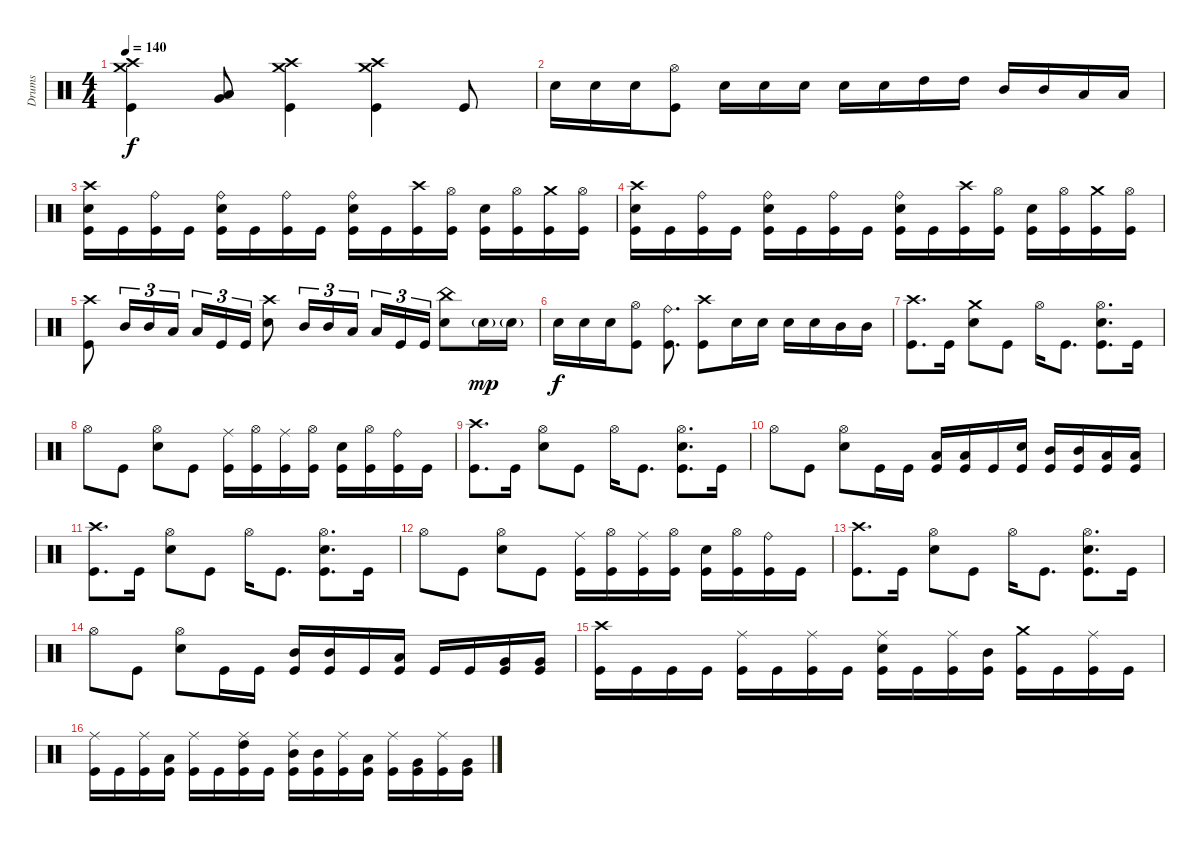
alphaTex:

\track ("Drums" "Drums") {instrument percussion}
\staff {score}
\articulation defaults
\ts (4 4)
\tempo 140
\clef neutral
\ks c
("Crash high (hit)" "Crash medium (hit)" "Kick (hit)").4{dy f} ("Very Low Tom (hit)" "Low Tom (hit)").8 ("Crash high (hit)" "Crash medium (hit)" "Kick (hit)").4 ("Crash high (hit)" "Crash medium (hit)" "Kick (hit)").4 "Kick (hit)".8 |
"Snare (hit) 2".16 "Snare (hit) 2".16 "Snare (hit) 2".16 ("Hi-Hat (open)" "Kick (hit)").8 "Snare (hit) 2".16 "Snare (hit) 2".16 "Snare (hit) 2".16 "Snare (hit) 2".16 "Snare (hit) 2".16 "High Tom (hit)".16 "High Tom (hit)".16 "Mid Tom (hit)".16 "Mid Tom (hit)".16 "Low Tom (hit)".16 "Low Tom (hit)".16 |
("Crash high (hit)" "Snare (hit) 2" "Kick (hit)").16 "Kick (hit)".16 ("Ride (bell)" "Kick (hit)").16 "Kick (hit)".16 ("Ride (bell)" "Snare (hit) 2" "Kick (hit)").16 "Kick (hit)".16 ("Ride (bell)" "Kick (hit)").16 "Kick (hit)".16 ("Ride (bell)" "Snare (hit) 2" "Kick (hit)").16 "Kick (hit)".16 ("Crash high (hit)" "Kick (hit)").16 ("Hi-Hat (open)" "Kick (hit)").16 ("Snare (hit) 2" "Kick (hit)").16 ("Hi-Hat (open)" "Kick (hit)").16 ("Crash medium (hit)" "Kick (hit)").16 ("Hi-Hat (open)" "Kick (hit)").16 |
("Crash high (hit)" "Snare (hit) 2" "Kick (hit)").16 "Kick (hit)".16 ("Ride (bell)" "Kick (hit)").16 "Kick (hit)".16 ("Ride (bell)" "Snare (hit) 2" "Kick (hit)").16 "Kick (hit)".16 ("Ride (bell)" "Kick (hit)").16 "Kick (hit)".16 ("Ride (bell)" "Snare (hit) 2" "Kick (hit)").16 "Kick (hit)".16 ("Crash high (hit)" "Kick (hit)").16 ("Hi-Hat (open)" "Kick (hit)").16 ("Snare (hit) 2" "Kick (hit)").16 ("Hi-Hat (open)" "Kick (hit)").16 ("Crash medium (hit)" "Kick (hit)").16 ("Hi-Hat (open)" "Kick (hit)").16 |
("Crash high (hit)" "Kick (hit)").8 "Mid Tom (hit)".16{tu (3 2)} "Mid Tom (hit)".16{tu (3 2)} "Low Tom (hit)".16{tu (3 2)} "Low Tom (hit)".16{tu (3 2)} "Kick (hit)".16{tu (3 2)} "Kick (hit)".16{tu (3 2)} ("Crash high (hit)" "Snare (hit) 2").8 "Mid Tom (hit)".16{tu (3 2)} "Mid Tom (hit)".16{tu (3 2)} "Low Tom (hit)".16{tu (3 2) beam splitsecondary} "Low Tom (hit)".16{tu (3 2)} "Kick (hit)".16{tu (3 2)} "Kick (hit)".16{tu (3 2)} ("China (hit)" "Snare (hit) 2").8 "Snare (hit) 2"{g}.16{dy mp} "Snare (hit) 2"{g}.16 |
"Snare (hit) 2".16{dy f} "Snare (hit) 2".16 "Snare (hit) 2".16 ("Hi-Hat (open)" "Kick (hit)").8 ("Ride (bell)" "Kick (hit)").8{d} ("Crash high (hit)" "Kick (hit)").8 "Snare (hit) 2".16 "Snare (hit) 2".16 "Snare (hit) 2".16 "Snare (hit) 2".16 "Mid Tom (hit)".16 "Mid Tom (hit)".16 |
("Crash high (hit)" "Kick (hit)").8{d} "Kick (hit)".16 ("Crash medium (hit)" "Snare (hit) 2").8 "Kick (hit)".8 "Hi-Hat (open)".16 "Kick (hit)".8{d} ("Hi-Hat (open)" "Snare (hit) 2" "Kick (hit)").8{d} "Kick (hit)".16 |
"Hi-Hat (open)".8 "Kick (hit)".8 ("Hi-Hat (open)" "Snare (hit) 2").8 "Kick (hit)".8 ("Ride (middle)" "Kick (hit)").16 ("Hi-Hat (open)" "Kick (hit)").16 ("Ride (middle)" "Kick (hit)").16 ("Hi-Hat (open)" "Kick (hit)").16 ("Snare (hit) 2" "Kick (hit)").16 ("Hi-Hat (open)" "Kick (hit)").16 ("Ride (bell)" "Kick (hit)").16 "Kick (hit)".16 |
("Crash high (hit)" "Kick (hit)").8{d} "Kick (hit)".16 ("Hi-Hat (open)" "Snare (hit) 2").8 "Kick (hit)".8 "Hi-Hat (open)".16 "Kick (hit)".8{d} ("Hi-Hat (open)" "Snare (hit) 2" "Kick (hit)").8{d} "Kick (hit)".16 |
"Hi-Hat (open)".8 "Kick (hit)".8 ("Hi-Hat (open)" "Snare (hit) 2").8 "Kick (hit)".16 "Kick (hit)".16 ("Low Tom (hit)" "Kick (hit)").16 ("Low Tom (hit)" "Kick (hit)").16 "Kick (hit)".16 ("Snare (hit) 2" "Kick (hit)").16 ("Mid Tom (hit)" "Kick (hit)").16 ("Mid Tom (hit)" "Kick (hit)").16 ("Low Tom (hit)" "Kick (hit)").16 ("Low Tom (hit)" "Kick (hit)").16 |
("Crash high (hit)" "Kick (hit)").8{d} "Kick (hit)".16 ("Hi-Hat (open)" "Snare (hit) 2").8 "Kick (hit)".8 "Hi-Hat (open)".16 "Kick (hit)".8{d} ("Hi-Hat (open)" "Snare (hit) 2" "Kick (hit)").8{d} "Kick (hit)".16 |
"Hi-Hat (open)".8 "Kick (hit)".8 ("Hi-Hat (open)" "Snare (hit) 2").8 "Kick (hit)".8 ("Ride (middle)" "Kick (hit)").16 ("Hi-Hat (open)" "Kick (hit)").16 ("Ride (middle)" "Kick (hit)").16 ("Hi-Hat (open)" "Kick (hit)").16 ("Snare (hit) 2" "Kick (hit)").16 ("Hi-Hat (open)" "Kick (hit)").16 ("Ride (bell)" "Kick (hit)").16 "Kick (hit)".16 |
("Crash high (hit)" "Kick (hit)").8{d} "Kick (hit)".16 ("Hi-Hat (open)" "Snare (hit) 2").8 "Kick (hit)".8 "Hi-Hat (open)".16 "Kick (hit)".8{d} ("Hi-Hat (open)" "Snare (hit) 2" "Kick (hit)").8{d} "Kick (hit)".16 |
"Hi-Hat (open)".8 "Kick (hit)".8 ("Hi-Hat (open)" "Snare (hit) 2").8 "Kick (hit)".16 "Kick (hit)".16 ("Mid Tom (hit)" "Kick (hit)").16 ("Mid Tom (hit)" "Kick (hit)").16 "Kick (hit)".16 ("Low Tom (hit)" "Kick (hit)").16 "Kick (hit)".16 "Kick (hit)".16 ("Very Low Tom (hit)" "Kick (hit)").16 ("Very Low Tom (hit)" "Kick (hit)").16 |
("Crash high (hit)" "Kick (hit)").16 "Kick (hit)".16 "Kick (hit)".16 "Kick (hit)".16 ("Ride (middle)" "Kick (hit)").16 "Kick (hit)".16 ("Ride (middle)" "Kick (hit)").16 "Kick (hit)".16 ("Ride (middle)" "Snare (hit) 2" "Kick (hit)").16 "Kick (hit)".16 ("Ride (middle)" "Kick (hit)").16 ("Mid Tom (hit)" "Kick (hit)").16 ("Crash medium (hit)" "Kick (hit)").16 "Kick (hit)".16 ("Ride (middle)" "Kick (hit)").16 "Kick (hit)".16 |
("Ride (middle)" "Kick (hit)").16 "Kick (hit)".16 ("Ride (middle)" "Kick (hit)").16 ("Low Tom (hit)" "Kick (hit)").16 ("Ride (middle)" "Kick (hit)").16 "Kick (hit)".16 ("Ride (middle)" "High Tom (hit)" "Kick (hit)").16 "Kick (hit)".16 ("Ride (middle)" "Mid Tom (hit)" "Kick (hit)").16 ("Mid Tom (hit)" "Kick (hit)").16 ("Ride (middle)" "Kick (hit)").16 ("Low Tom (hit)" "Kick (hit)").16 ("Ride (middle)" "Kick (hit)").16 ("Very Low Tom (hit)" "Kick (hit)").16 ("Ride (middle)" "Kick (hit)").16 ("Very Low Tom (hit)" "Kick (hit)").16
